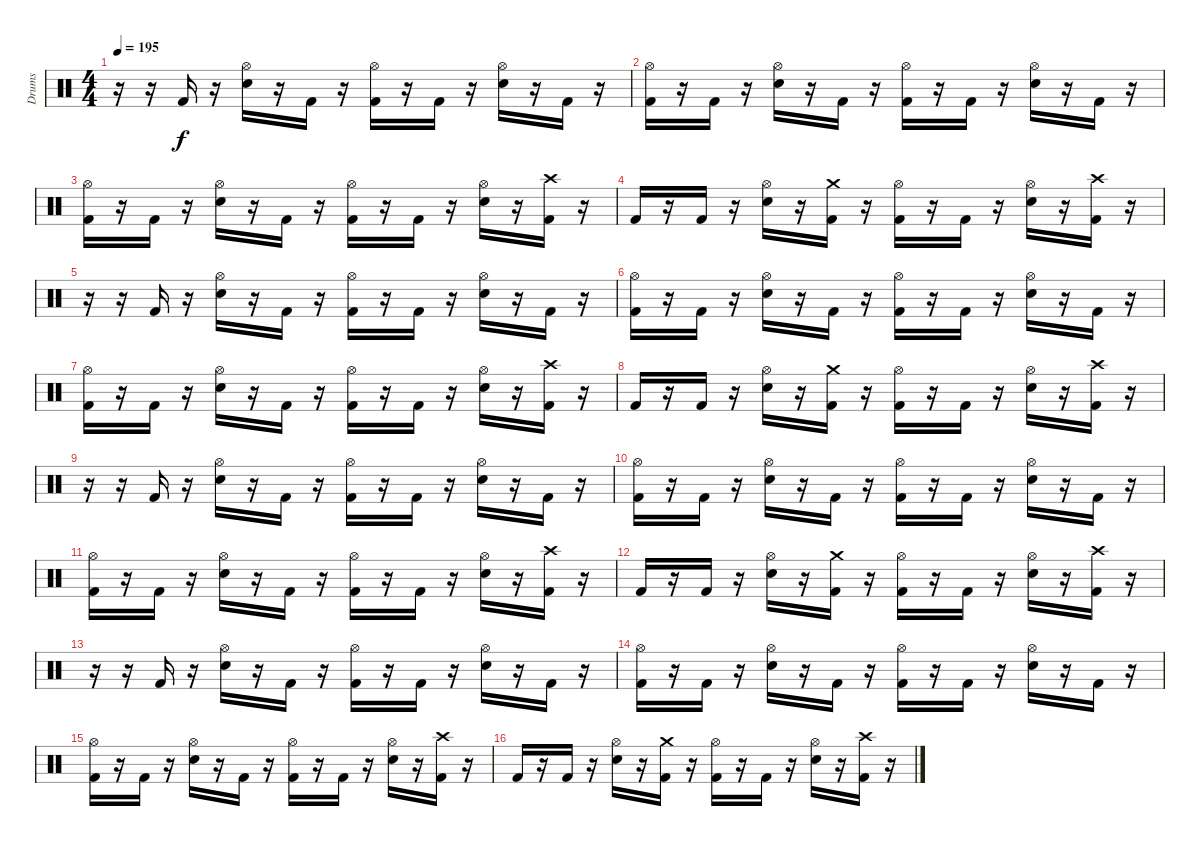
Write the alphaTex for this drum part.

\track ("Drums" "Drums") {instrument percussion}
\staff {score}
\articulation defaults
\ts (4 4)
\tempo 195
\clef neutral
\ks c
r.16{dy f} r.16 "Kick (hit) 2".16 r.16 ("Electric Snare (hit)" "Hi-Hat (open)").16 r.16 "Kick (hit) 2".16 r.16 ("Hi-Hat (open)" "Kick (hit) 2").16 r.16 "Kick (hit) 2".16 r.16 ("Hi-Hat (open)" "Electric Snare (hit)").16 r.16 "Kick (hit) 2".16 r.16 |
("Hi-Hat (open)" "Kick (hit) 2").16 r.16 "Kick (hit) 2".16 r.16 ("Electric Snare (hit)" "Hi-Hat (open)").16 r.16 "Kick (hit) 2".16 r.16 ("Hi-Hat (open)" "Kick (hit) 2").16 r.16 "Kick (hit) 2".16 r.16 ("Hi-Hat (open)" "Electric Snare (hit)").16 r.16 "Kick (hit) 2".16 r.16 |
("Hi-Hat (open)" "Kick (hit) 2").16 r.16 "Kick (hit) 2".16 r.16 ("Electric Snare (hit)" "Hi-Hat (open)").16 r.16 "Kick (hit) 2".16 r.16 ("Hi-Hat (open)" "Kick (hit) 2").16 r.16 "Kick (hit) 2".16 r.16 ("Hi-Hat (open)" "Electric Snare (hit)").16 r.16 ("Crash high (hit)" "Kick (hit) 2").16 r.16 |
"Kick (hit) 2".16 r.16 "Kick (hit) 2".16 r.16 ("Electric Snare (hit)" "Hi-Hat (open)").16 r.16 ("Crash medium (hit)" "Kick (hit) 2").16 r.16 ("Hi-Hat (open)" "Kick (hit) 2").16 r.16 "Kick (hit) 2".16 r.16 ("Hi-Hat (open)" "Electric Snare (hit)").16 r.16 ("Crash high (hit)" "Kick (hit) 2").16 r.16 |
r.16 r.16 "Kick (hit) 2".16 r.16 ("Electric Snare (hit)" "Hi-Hat (open)").16 r.16 "Kick (hit) 2".16 r.16 ("Hi-Hat (open)" "Kick (hit) 2").16 r.16 "Kick (hit) 2".16 r.16 ("Hi-Hat (open)" "Electric Snare (hit)").16 r.16 "Kick (hit) 2".16 r.16 |
("Hi-Hat (open)" "Kick (hit) 2").16 r.16 "Kick (hit) 2".16 r.16 ("Electric Snare (hit)" "Hi-Hat (open)").16 r.16 "Kick (hit) 2".16 r.16 ("Hi-Hat (open)" "Kick (hit) 2").16 r.16 "Kick (hit) 2".16 r.16 ("Hi-Hat (open)" "Electric Snare (hit)").16 r.16 "Kick (hit) 2".16 r.16 |
("Hi-Hat (open)" "Kick (hit) 2").16 r.16 "Kick (hit) 2".16 r.16 ("Electric Snare (hit)" "Hi-Hat (open)").16 r.16 "Kick (hit) 2".16 r.16 ("Hi-Hat (open)" "Kick (hit) 2").16 r.16 "Kick (hit) 2".16 r.16 ("Hi-Hat (open)" "Electric Snare (hit)").16 r.16 ("Crash high (hit)" "Kick (hit) 2").16 r.16 |
"Kick (hit) 2".16 r.16 "Kick (hit) 2".16 r.16 ("Electric Snare (hit)" "Hi-Hat (open)").16 r.16 ("Crash medium (hit)" "Kick (hit) 2").16 r.16 ("Hi-Hat (open)" "Kick (hit) 2").16 r.16 "Kick (hit) 2".16 r.16 ("Hi-Hat (open)" "Electric Snare (hit)").16 r.16 ("Crash high (hit)" "Kick (hit) 2").16 r.16 |
r.16 r.16 "Kick (hit) 2".16 r.16 ("Electric Snare (hit)" "Hi-Hat (open)").16 r.16 "Kick (hit) 2".16 r.16 ("Hi-Hat (open)" "Kick (hit) 2").16 r.16 "Kick (hit) 2".16 r.16 ("Hi-Hat (open)" "Electric Snare (hit)").16 r.16 "Kick (hit) 2".16 r.16 |
("Hi-Hat (open)" "Kick (hit) 2").16 r.16 "Kick (hit) 2".16 r.16 ("Electric Snare (hit)" "Hi-Hat (open)").16 r.16 "Kick (hit) 2".16 r.16 ("Hi-Hat (open)" "Kick (hit) 2").16 r.16 "Kick (hit) 2".16 r.16 ("Hi-Hat (open)" "Electric Snare (hit)").16 r.16 "Kick (hit) 2".16 r.16 |
("Hi-Hat (open)" "Kick (hit) 2").16 r.16 "Kick (hit) 2".16 r.16 ("Electric Snare (hit)" "Hi-Hat (open)").16 r.16 "Kick (hit) 2".16 r.16 ("Hi-Hat (open)" "Kick (hit) 2").16 r.16 "Kick (hit) 2".16 r.16 ("Hi-Hat (open)" "Electric Snare (hit)").16 r.16 ("Crash high (hit)" "Kick (hit) 2").16 r.16 |
"Kick (hit) 2".16 r.16 "Kick (hit) 2".16 r.16 ("Electric Snare (hit)" "Hi-Hat (open)").16 r.16 ("Crash medium (hit)" "Kick (hit) 2").16 r.16 ("Hi-Hat (open)" "Kick (hit) 2").16 r.16 "Kick (hit) 2".16 r.16 ("Hi-Hat (open)" "Electric Snare (hit)").16 r.16 ("Crash high (hit)" "Kick (hit) 2").16 r.16 |
r.16 r.16 "Kick (hit) 2".16 r.16 ("Electric Snare (hit)" "Hi-Hat (open)").16 r.16 "Kick (hit) 2".16 r.16 ("Hi-Hat (open)" "Kick (hit) 2").16 r.16 "Kick (hit) 2".16 r.16 ("Hi-Hat (open)" "Electric Snare (hit)").16 r.16 "Kick (hit) 2".16 r.16 |
("Hi-Hat (open)" "Kick (hit) 2").16 r.16 "Kick (hit) 2".16 r.16 ("Electric Snare (hit)" "Hi-Hat (open)").16 r.16 "Kick (hit) 2".16 r.16 ("Hi-Hat (open)" "Kick (hit) 2").16 r.16 "Kick (hit) 2".16 r.16 ("Hi-Hat (open)" "Electric Snare (hit)").16 r.16 "Kick (hit) 2".16 r.16 |
("Hi-Hat (open)" "Kick (hit) 2").16 r.16 "Kick (hit) 2".16 r.16 ("Electric Snare (hit)" "Hi-Hat (open)").16 r.16 "Kick (hit) 2".16 r.16 ("Hi-Hat (open)" "Kick (hit) 2").16 r.16 "Kick (hit) 2".16 r.16 ("Hi-Hat (open)" "Electric Snare (hit)").16 r.16 ("Crash high (hit)" "Kick (hit) 2").16 r.16 |
"Kick (hit) 2".16 r.16 "Kick (hit) 2".16 r.16 ("Electric Snare (hit)" "Hi-Hat (open)").16 r.16 ("Crash medium (hit)" "Kick (hit) 2").16 r.16 ("Hi-Hat (open)" "Kick (hit) 2").16 r.16 "Kick (hit) 2".16 r.16 ("Hi-Hat (open)" "Electric Snare (hit)").16 r.16 ("Crash high (hit)" "Kick (hit) 2").16 r.16
